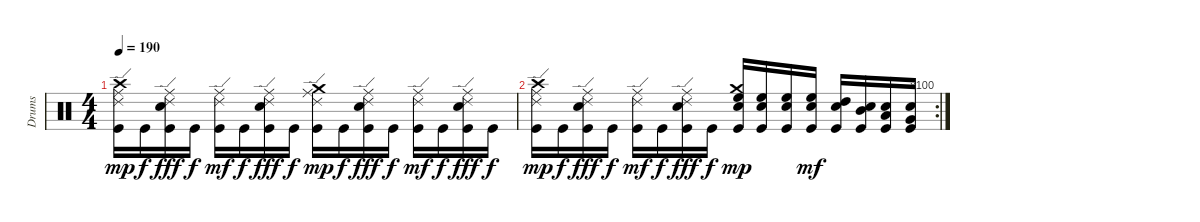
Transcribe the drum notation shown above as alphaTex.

\track ("Drums" "Drums") {instrument percussion}
\staff {score}
\articulation defaults
\ts (4 4)
\tempo 190
\clef neutral
\ks c
("Kick (hit)" "Ride (edge) 2" "Ride (middle)" "Crash high (hit)").16{dy mp} "Kick (hit)".16{dy f} ("Electric Snare (hit)" "Kick (hit)" "Ride (middle)" "Ride (edge) 2").16{dy fff} "Kick (hit)".16{dy f} ("Kick (hit)" "Ride (edge) 2" "Ride (middle)").16{dy mf} "Kick (hit)".16{dy f} ("Electric Snare (hit)" "Kick (hit)" "Ride (edge) 2" "Ride (middle)").16{dy fff} "Kick (hit)".16{dy f} ("Kick (hit)" "Ride (edge) 2" "Ride (middle)" "Crash medium (hit)").16{dy mp} "Kick (hit)".16{dy f} ("Electric Snare (hit)" "Kick (hit)" "Ride (middle)" "Ride (edge) 2").16{dy fff} "Kick (hit)".16{dy f} ("Kick (hit)" "Ride (edge) 2" "Ride (middle)").16{dy mf} "Kick (hit)".16{dy f} ("Electric Snare (hit)" "Kick (hit)" "Ride (edge) 2" "Ride (middle)").16{dy fff} "Kick (hit)".16{dy f} |
\rc 100
("Kick (hit)" "Ride (edge) 2" "Ride (middle)" "Crash high (hit)").16{dy mp} "Kick (hit)".16{dy f} ("Electric Snare (hit)" "Kick (hit)" "Ride (middle)" "Ride (edge) 2").16{dy fff} "Kick (hit)".16{dy f} ("Kick (hit)" "Ride (edge) 2" "Ride (middle)").16{dy mf} "Kick (hit)".16{dy f} ("Electric Snare (hit)" "Kick (hit)" "Ride (edge) 2" "Ride (middle)").16{dy fff} "Kick (hit)".16{dy f} ("High Floor Tom (hit)" "Kick (hit)" "Electric Snare (hit)" "Crash medium (hit)").16{dy mp} ("High Floor Tom (hit)" "Kick (hit)" "Electric Snare (hit)").16 ("High Floor Tom (hit)" "Electric Snare (hit)" "Kick (hit)").16 ("Electric Snare (hit)" "High Floor Tom (hit)" "Kick (hit)").16{dy mf} ("Kick (hit)" "Electric Snare (hit)" "High Tom (hit)").16 ("Kick (hit)" "Mid Tom (hit)" "Electric Snare (hit)").16 ("Kick (hit)" "Electric Snare (hit)" "Low Tom (hit)").16 ("Kick (hit)" "Very Low Tom (hit)" "Electric Snare (hit)").16
